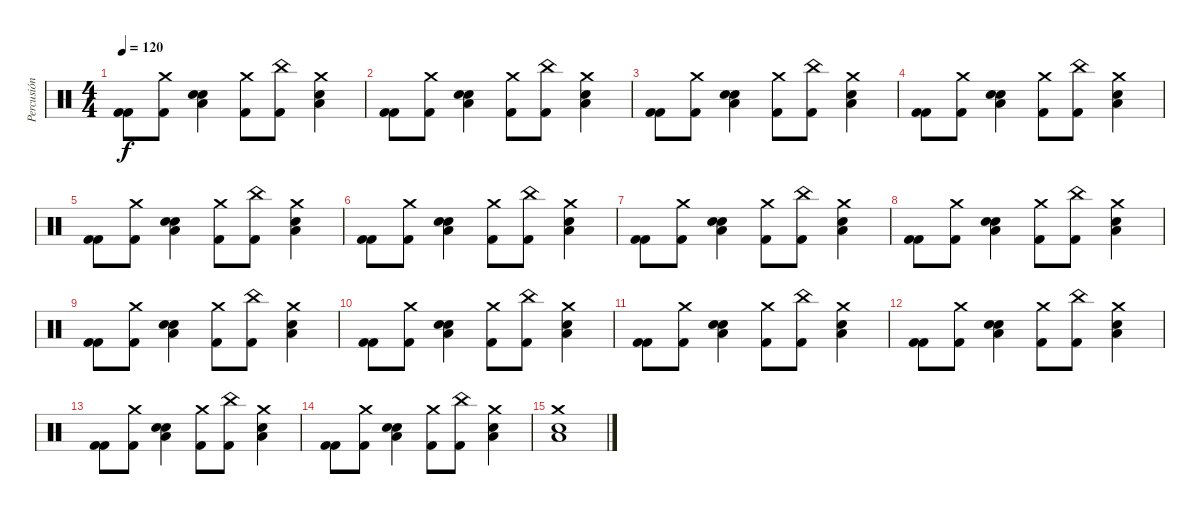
\track ("Percusión" "Percusión") {instrument percussion}
\staff {score}
\articulation defaults
\ts (4 4)
\tempo 120
\clef neutral
\ks c
("Kick (hit) 2" "Kick (hit) 2").8{dy f} ("Crash medium (hit)" "Kick (hit) 2").8 ("Snare (hit) 2" "Low Tom (hit)" "Snare (hit) 2").4 ("Crash medium (hit)" "Kick (hit) 2").8 ("China (hit)" "Kick (hit) 2").8 ("Crash medium (hit)" "Low Tom (hit)" "Snare (hit) 2").4 |
("Kick (hit) 2" "Kick (hit) 2").8 ("Crash medium (hit)" "Kick (hit) 2").8 ("Snare (hit) 2" "Low Tom (hit)" "Snare (hit) 2").4 ("Crash medium (hit)" "Kick (hit) 2").8 ("China (hit)" "Kick (hit) 2").8 ("Crash medium (hit)" "Low Tom (hit)" "Snare (hit) 2").4 |
("Kick (hit) 2" "Kick (hit) 2").8 ("Crash medium (hit)" "Kick (hit) 2").8 ("Snare (hit) 2" "Low Tom (hit)" "Snare (hit) 2").4 ("Crash medium (hit)" "Kick (hit) 2").8 ("China (hit)" "Kick (hit) 2").8 ("Crash medium (hit)" "Low Tom (hit)" "Snare (hit) 2").4 |
("Kick (hit) 2" "Kick (hit) 2").8 ("Crash medium (hit)" "Kick (hit) 2").8 ("Snare (hit) 2" "Low Tom (hit)" "Snare (hit) 2").4 ("Crash medium (hit)" "Kick (hit) 2").8 ("China (hit)" "Kick (hit) 2").8 ("Crash medium (hit)" "Low Tom (hit)" "Snare (hit) 2").4 |
("Kick (hit) 2" "Kick (hit) 2").8 ("Crash medium (hit)" "Kick (hit) 2").8 ("Snare (hit) 2" "Low Tom (hit)" "Snare (hit) 2").4 ("Crash medium (hit)" "Kick (hit) 2").8 ("China (hit)" "Kick (hit) 2").8 ("Crash medium (hit)" "Low Tom (hit)" "Snare (hit) 2").4 |
("Kick (hit) 2" "Kick (hit) 2").8 ("Crash medium (hit)" "Kick (hit) 2").8 ("Snare (hit) 2" "Low Tom (hit)" "Snare (hit) 2").4 ("Crash medium (hit)" "Kick (hit) 2").8 ("China (hit)" "Kick (hit) 2").8 ("Crash medium (hit)" "Low Tom (hit)" "Snare (hit) 2").4 |
("Kick (hit) 2" "Kick (hit) 2").8 ("Crash medium (hit)" "Kick (hit) 2").8 ("Snare (hit) 2" "Low Tom (hit)" "Snare (hit) 2").4 ("Crash medium (hit)" "Kick (hit) 2").8 ("China (hit)" "Kick (hit) 2").8 ("Crash medium (hit)" "Low Tom (hit)" "Snare (hit) 2").4 |
("Kick (hit) 2" "Kick (hit) 2").8 ("Crash medium (hit)" "Kick (hit) 2").8 ("Snare (hit) 2" "Low Tom (hit)" "Snare (hit) 2").4 ("Crash medium (hit)" "Kick (hit) 2").8 ("China (hit)" "Kick (hit) 2").8 ("Crash medium (hit)" "Low Tom (hit)" "Snare (hit) 2").4 |
("Kick (hit) 2" "Kick (hit) 2").8 ("Crash medium (hit)" "Kick (hit) 2").8 ("Snare (hit) 2" "Low Tom (hit)" "Snare (hit) 2").4 ("Crash medium (hit)" "Kick (hit) 2").8 ("China (hit)" "Kick (hit) 2").8 ("Crash medium (hit)" "Low Tom (hit)" "Snare (hit) 2").4 |
("Kick (hit) 2" "Kick (hit) 2").8 ("Crash medium (hit)" "Kick (hit) 2").8 ("Snare (hit) 2" "Low Tom (hit)" "Snare (hit) 2").4 ("Crash medium (hit)" "Kick (hit) 2").8 ("China (hit)" "Kick (hit) 2").8 ("Crash medium (hit)" "Low Tom (hit)" "Snare (hit) 2").4 |
("Kick (hit) 2" "Kick (hit) 2").8 ("Crash medium (hit)" "Kick (hit) 2").8 ("Snare (hit) 2" "Low Tom (hit)" "Snare (hit) 2").4 ("Crash medium (hit)" "Kick (hit) 2").8 ("China (hit)" "Kick (hit) 2").8 ("Crash medium (hit)" "Low Tom (hit)" "Snare (hit) 2").4 |
("Kick (hit) 2" "Kick (hit) 2").8 ("Crash medium (hit)" "Kick (hit) 2").8 ("Snare (hit) 2" "Low Tom (hit)" "Snare (hit) 2").4 ("Crash medium (hit)" "Kick (hit) 2").8 ("China (hit)" "Kick (hit) 2").8 ("Crash medium (hit)" "Low Tom (hit)" "Snare (hit) 2").4 |
("Kick (hit) 2" "Kick (hit) 2").8 ("Crash medium (hit)" "Kick (hit) 2").8 ("Snare (hit) 2" "Low Tom (hit)" "Snare (hit) 2").4 ("Crash medium (hit)" "Kick (hit) 2").8 ("China (hit)" "Kick (hit) 2").8 ("Crash medium (hit)" "Low Tom (hit)" "Snare (hit) 2").4 |
("Kick (hit) 2" "Kick (hit) 2").8 ("Crash medium (hit)" "Kick (hit) 2").8 ("Snare (hit) 2" "Low Tom (hit)" "Snare (hit) 2").4 ("Crash medium (hit)" "Kick (hit) 2").8 ("China (hit)" "Kick (hit) 2").8 ("Crash medium (hit)" "Low Tom (hit)" "Snare (hit) 2").4 |
("Crash medium (hit)" "Low Tom (hit)" "Snare (hit) 2").1
